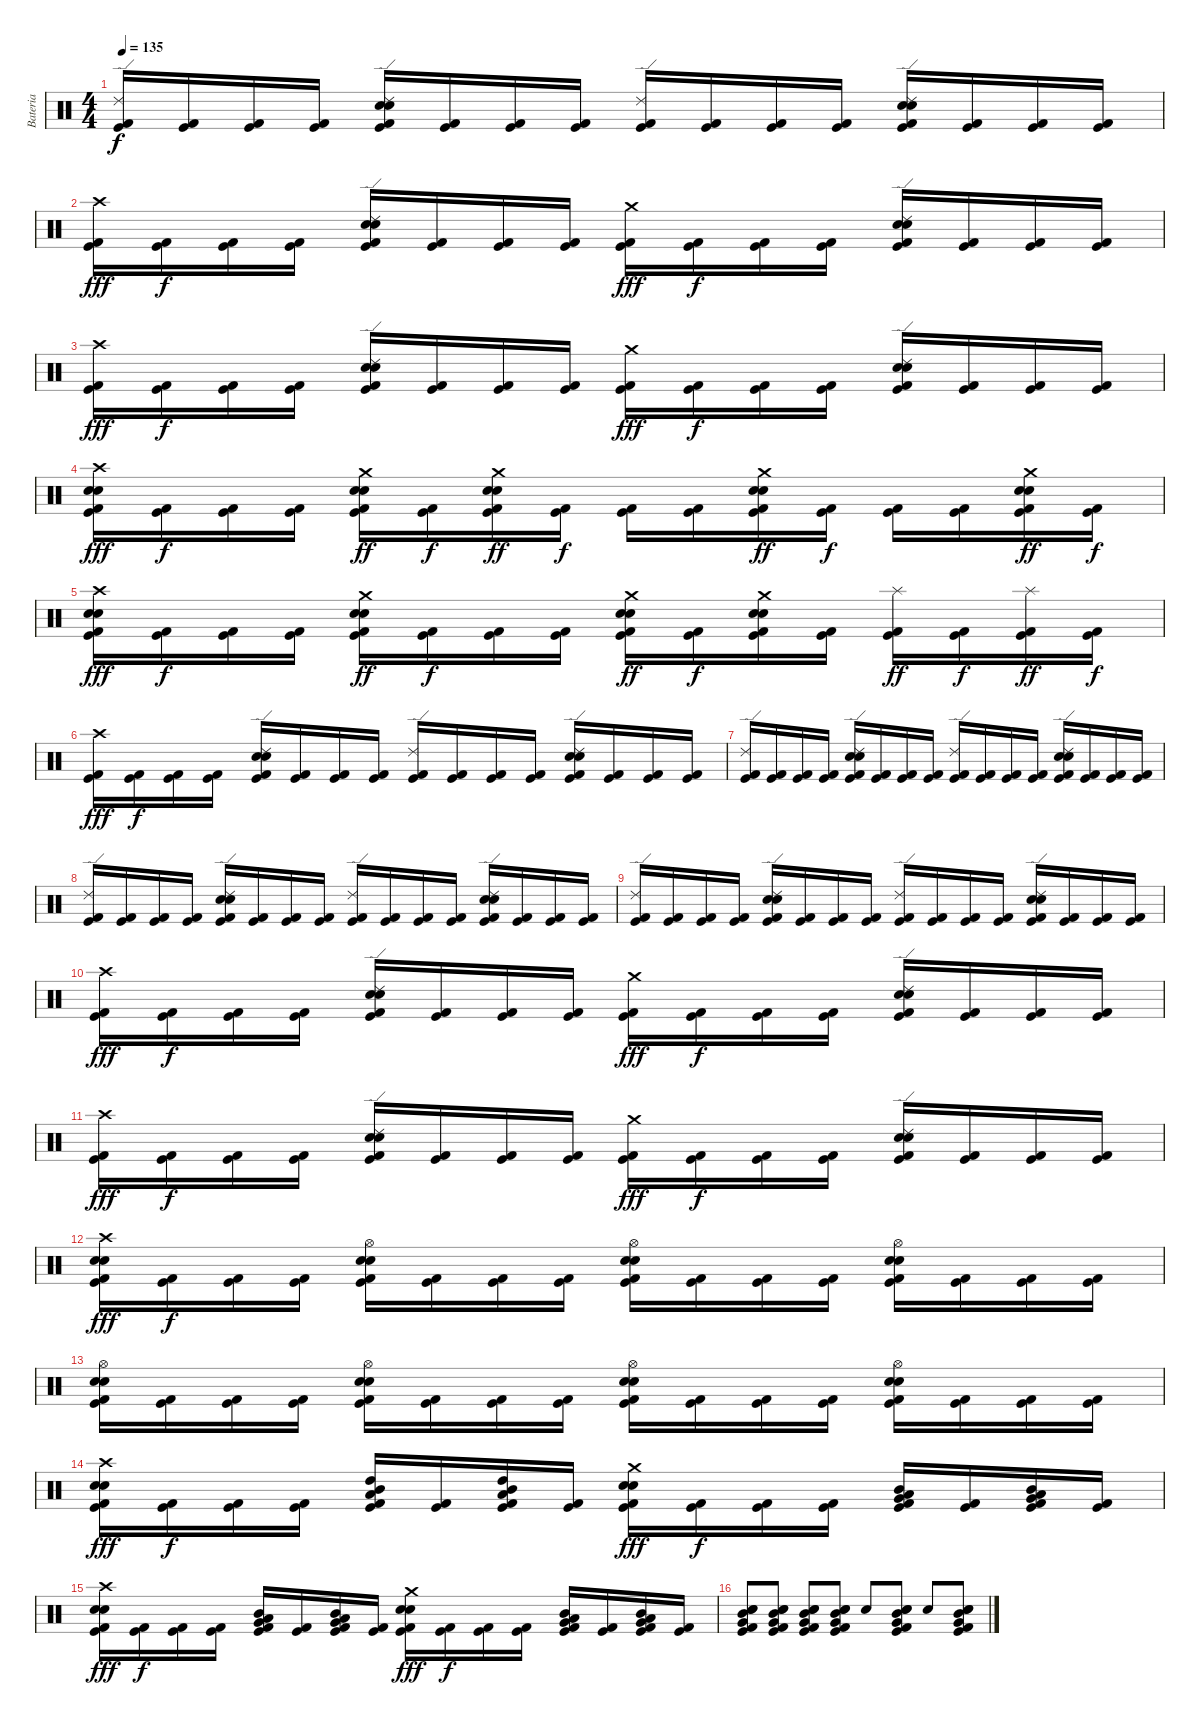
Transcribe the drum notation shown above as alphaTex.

\track ("Bateria" "Bateria") {instrument percussion}
\staff {score}
\articulation defaults
\ts (4 4)
\tempo 135
\clef neutral
\ks c
("Ride (edge) 2" "Kick (hit) 2" "Kick (hit)").16{dy f} ("Kick (hit) 2" "Kick (hit)").16 ("Kick (hit) 2" "Kick (hit)").16 ("Kick (hit) 2" "Kick (hit)").16 ("Ride (edge) 2" "Electric Snare (hit)" "Snare (hit) 2" "Kick (hit) 2" "Kick (hit)").16 ("Kick (hit) 2" "Kick (hit)").16 ("Kick (hit) 2" "Kick (hit)").16 ("Kick (hit) 2" "Kick (hit)").16 ("Ride (edge) 2" "Kick (hit) 2" "Kick (hit)").16 ("Kick (hit) 2" "Kick (hit)").16 ("Kick (hit) 2" "Kick (hit)").16 ("Kick (hit) 2" "Kick (hit)").16 ("Ride (edge) 2" "Electric Snare (hit)" "Snare (hit) 2" "Kick (hit) 2" "Kick (hit)").16 ("Kick (hit) 2" "Kick (hit)").16 ("Kick (hit) 2" "Kick (hit)").16 ("Kick (hit) 2" "Kick (hit)").16 |
("Crash high (hit)" "Kick (hit) 2" "Kick (hit)").16{dy fff} ("Kick (hit) 2" "Kick (hit)").16{dy f} ("Kick (hit) 2" "Kick (hit)").16 ("Kick (hit) 2" "Kick (hit)").16 ("Ride (edge) 2" "Electric Snare (hit)" "Snare (hit) 2" "Kick (hit) 2" "Kick (hit)").16 ("Kick (hit) 2" "Kick (hit)").16 ("Kick (hit) 2" "Kick (hit)").16 ("Kick (hit) 2" "Kick (hit)").16 ("Crash medium (hit)" "Kick (hit) 2" "Kick (hit)").16{dy fff} ("Kick (hit) 2" "Kick (hit)").16{dy f} ("Kick (hit) 2" "Kick (hit)").16 ("Kick (hit) 2" "Kick (hit)").16 ("Ride (edge) 2" "Electric Snare (hit)" "Snare (hit) 2" "Kick (hit) 2" "Kick (hit)").16 ("Kick (hit) 2" "Kick (hit)").16 ("Kick (hit) 2" "Kick (hit)").16 ("Kick (hit) 2" "Kick (hit)").16 |
("Crash high (hit)" "Kick (hit) 2" "Kick (hit)").16{dy fff} ("Kick (hit) 2" "Kick (hit)").16{dy f} ("Kick (hit) 2" "Kick (hit)").16 ("Kick (hit) 2" "Kick (hit)").16 ("Ride (edge) 2" "Electric Snare (hit)" "Snare (hit) 2" "Kick (hit) 2" "Kick (hit)").16 ("Kick (hit) 2" "Kick (hit)").16 ("Kick (hit) 2" "Kick (hit)").16 ("Kick (hit) 2" "Kick (hit)").16 ("Crash medium (hit)" "Kick (hit) 2" "Kick (hit)").16{dy fff} ("Kick (hit) 2" "Kick (hit)").16{dy f} ("Kick (hit) 2" "Kick (hit)").16 ("Kick (hit) 2" "Kick (hit)").16 ("Ride (edge) 2" "Electric Snare (hit)" "Snare (hit) 2" "Kick (hit) 2" "Kick (hit)").16 ("Kick (hit) 2" "Kick (hit)").16 ("Kick (hit) 2" "Kick (hit)").16 ("Kick (hit) 2" "Kick (hit)").16 |
("Crash high (hit)" "Electric Snare (hit)" "Snare (hit) 2" "Kick (hit) 2" "Kick (hit)").16{dy fff} ("Kick (hit) 2" "Kick (hit)").16{dy f} ("Kick (hit) 2" "Kick (hit)").16 ("Kick (hit) 2" "Kick (hit)").16 ("Crash medium (hit)" "Electric Snare (hit)" "Snare (hit) 2" "Kick (hit) 2" "Kick (hit)").16{dy ff} ("Kick (hit) 2" "Kick (hit)").16{dy f} ("Crash medium (hit)" "Electric Snare (hit)" "Snare (hit) 2" "Kick (hit) 2" "Kick (hit)").16{dy ff} ("Kick (hit) 2" "Kick (hit)").16{dy f} ("Kick (hit) 2" "Kick (hit)").16 ("Kick (hit) 2" "Kick (hit)").16 ("Crash medium (hit)" "Electric Snare (hit)" "Snare (hit) 2" "Kick (hit) 2" "Kick (hit)").16{dy ff} ("Kick (hit) 2" "Kick (hit)").16{dy f} ("Kick (hit) 2" "Kick (hit)").16 ("Kick (hit) 2" "Kick (hit)").16 ("Crash medium (hit)" "Electric Snare (hit)" "Snare (hit) 2" "Kick (hit) 2" "Kick (hit)").16{dy ff} ("Kick (hit) 2" "Kick (hit)").16{dy f} |
("Crash high (hit)" "Electric Snare (hit)" "Snare (hit) 2" "Kick (hit) 2" "Kick (hit)").16{dy fff} ("Kick (hit) 2" "Kick (hit)").16{dy f} ("Kick (hit) 2" "Kick (hit)").16 ("Kick (hit) 2" "Kick (hit)").16 ("Crash medium (hit)" "Electric Snare (hit)" "Snare (hit) 2" "Kick (hit) 2" "Kick (hit)").16{dy ff} ("Kick (hit) 2" "Kick (hit)").16{dy f} ("Kick (hit) 2" "Kick (hit)").16 ("Kick (hit) 2" "Kick (hit)").16 ("Crash medium (hit)" "Electric Snare (hit)" "Snare (hit) 2" "Kick (hit) 2" "Kick (hit)").16{dy ff} ("Kick (hit) 2" "Kick (hit)").16{dy f} ("Crash medium (hit)" "Electric Snare (hit)" "Snare (hit) 2" "Kick (hit) 2" "Kick (hit)").16 ("Kick (hit) 2" "Kick (hit)").16 ("Splash (hit)" "Kick (hit) 2" "Kick (hit)").16{dy ff} ("Kick (hit) 2" "Kick (hit)").16{dy f} ("Splash (hit)" "Kick (hit) 2" "Kick (hit)").16{dy ff} ("Kick (hit) 2" "Kick (hit)").16{dy f} |
("Crash high (hit)" "Kick (hit) 2" "Kick (hit)").16{dy fff} ("Kick (hit) 2" "Kick (hit)").16{dy f} ("Kick (hit) 2" "Kick (hit)").16 ("Kick (hit) 2" "Kick (hit)").16 ("Ride (edge) 2" "Electric Snare (hit)" "Snare (hit) 2" "Kick (hit) 2" "Kick (hit)").16 ("Kick (hit) 2" "Kick (hit)").16 ("Kick (hit) 2" "Kick (hit)").16 ("Kick (hit) 2" "Kick (hit)").16 ("Ride (edge) 2" "Kick (hit) 2" "Kick (hit)").16 ("Kick (hit) 2" "Kick (hit)").16 ("Kick (hit) 2" "Kick (hit)").16 ("Kick (hit) 2" "Kick (hit)").16 ("Ride (edge) 2" "Electric Snare (hit)" "Snare (hit) 2" "Kick (hit) 2" "Kick (hit)").16 ("Kick (hit) 2" "Kick (hit)").16 ("Kick (hit) 2" "Kick (hit)").16 ("Kick (hit) 2" "Kick (hit)").16 |
("Ride (edge) 2" "Kick (hit) 2" "Kick (hit)").16 ("Kick (hit) 2" "Kick (hit)").16 ("Kick (hit) 2" "Kick (hit)").16 ("Kick (hit) 2" "Kick (hit)").16 ("Ride (edge) 2" "Electric Snare (hit)" "Snare (hit) 2" "Kick (hit) 2" "Kick (hit)").16 ("Kick (hit) 2" "Kick (hit)").16 ("Kick (hit) 2" "Kick (hit)").16 ("Kick (hit) 2" "Kick (hit)").16 ("Ride (edge) 2" "Kick (hit) 2" "Kick (hit)").16 ("Kick (hit) 2" "Kick (hit)").16 ("Kick (hit) 2" "Kick (hit)").16 ("Kick (hit) 2" "Kick (hit)").16 ("Ride (edge) 2" "Electric Snare (hit)" "Snare (hit) 2" "Kick (hit) 2" "Kick (hit)").16 ("Kick (hit) 2" "Kick (hit)").16 ("Kick (hit) 2" "Kick (hit)").16 ("Kick (hit) 2" "Kick (hit)").16 |
("Ride (edge) 2" "Kick (hit) 2" "Kick (hit)").16 ("Kick (hit) 2" "Kick (hit)").16 ("Kick (hit) 2" "Kick (hit)").16 ("Kick (hit) 2" "Kick (hit)").16 ("Ride (edge) 2" "Electric Snare (hit)" "Snare (hit) 2" "Kick (hit) 2" "Kick (hit)").16 ("Kick (hit) 2" "Kick (hit)").16 ("Kick (hit) 2" "Kick (hit)").16 ("Kick (hit) 2" "Kick (hit)").16 ("Ride (edge) 2" "Kick (hit) 2" "Kick (hit)").16 ("Kick (hit) 2" "Kick (hit)").16 ("Kick (hit) 2" "Kick (hit)").16 ("Kick (hit) 2" "Kick (hit)").16 ("Ride (edge) 2" "Electric Snare (hit)" "Snare (hit) 2" "Kick (hit) 2" "Kick (hit)").16 ("Kick (hit) 2" "Kick (hit)").16 ("Kick (hit) 2" "Kick (hit)").16 ("Kick (hit) 2" "Kick (hit)").16 |
("Ride (edge) 2" "Kick (hit) 2" "Kick (hit)").16 ("Kick (hit) 2" "Kick (hit)").16 ("Kick (hit) 2" "Kick (hit)").16 ("Kick (hit) 2" "Kick (hit)").16 ("Ride (edge) 2" "Electric Snare (hit)" "Snare (hit) 2" "Kick (hit) 2" "Kick (hit)").16 ("Kick (hit) 2" "Kick (hit)").16 ("Kick (hit) 2" "Kick (hit)").16 ("Kick (hit) 2" "Kick (hit)").16 ("Ride (edge) 2" "Kick (hit) 2" "Kick (hit)").16 ("Kick (hit) 2" "Kick (hit)").16 ("Kick (hit) 2" "Kick (hit)").16 ("Kick (hit) 2" "Kick (hit)").16 ("Ride (edge) 2" "Electric Snare (hit)" "Snare (hit) 2" "Kick (hit) 2" "Kick (hit)").16 ("Kick (hit) 2" "Kick (hit)").16 ("Kick (hit) 2" "Kick (hit)").16 ("Kick (hit) 2" "Kick (hit)").16 |
("Crash high (hit)" "Kick (hit) 2" "Kick (hit)").16{dy fff} ("Kick (hit) 2" "Kick (hit)").16{dy f} ("Kick (hit) 2" "Kick (hit)").16 ("Kick (hit) 2" "Kick (hit)").16 ("Ride (edge) 2" "Electric Snare (hit)" "Snare (hit) 2" "Kick (hit) 2" "Kick (hit)").16 ("Kick (hit) 2" "Kick (hit)").16 ("Kick (hit) 2" "Kick (hit)").16 ("Kick (hit) 2" "Kick (hit)").16 ("Crash medium (hit)" "Kick (hit) 2" "Kick (hit)").16{dy fff} ("Kick (hit) 2" "Kick (hit)").16{dy f} ("Kick (hit) 2" "Kick (hit)").16 ("Kick (hit) 2" "Kick (hit)").16 ("Ride (edge) 2" "Electric Snare (hit)" "Snare (hit) 2" "Kick (hit) 2" "Kick (hit)").16 ("Kick (hit) 2" "Kick (hit)").16 ("Kick (hit) 2" "Kick (hit)").16 ("Kick (hit) 2" "Kick (hit)").16 |
("Crash high (hit)" "Kick (hit) 2" "Kick (hit)").16{dy fff} ("Kick (hit) 2" "Kick (hit)").16{dy f} ("Kick (hit) 2" "Kick (hit)").16 ("Kick (hit) 2" "Kick (hit)").16 ("Ride (edge) 2" "Electric Snare (hit)" "Snare (hit) 2" "Kick (hit) 2" "Kick (hit)").16 ("Kick (hit) 2" "Kick (hit)").16 ("Kick (hit) 2" "Kick (hit)").16 ("Kick (hit) 2" "Kick (hit)").16 ("Crash medium (hit)" "Kick (hit) 2" "Kick (hit)").16{dy fff} ("Kick (hit) 2" "Kick (hit)").16{dy f} ("Kick (hit) 2" "Kick (hit)").16 ("Kick (hit) 2" "Kick (hit)").16 ("Ride (edge) 2" "Electric Snare (hit)" "Snare (hit) 2" "Kick (hit) 2" "Kick (hit)").16 ("Kick (hit) 2" "Kick (hit)").16 ("Kick (hit) 2" "Kick (hit)").16 ("Kick (hit) 2" "Kick (hit)").16 |
("Crash high (hit)" "Electric Snare (hit)" "Snare (hit) 2" "Kick (hit) 2" "Kick (hit)").16{dy fff} ("Kick (hit) 2" "Kick (hit)").16{dy f} ("Kick (hit) 2" "Kick (hit)").16 ("Kick (hit) 2" "Kick (hit)").16 ("Hi-Hat (open)" "Electric Snare (hit)" "Snare (hit) 2" "Kick (hit) 2" "Kick (hit)").16 ("Kick (hit) 2" "Kick (hit)").16 ("Kick (hit) 2" "Kick (hit)").16 ("Kick (hit) 2" "Kick (hit)").16 ("Hi-Hat (open)" "Electric Snare (hit)" "Snare (hit) 2" "Kick (hit) 2" "Kick (hit)").16 ("Kick (hit) 2" "Kick (hit)").16 ("Kick (hit) 2" "Kick (hit)").16 ("Kick (hit) 2" "Kick (hit)").16 ("Hi-Hat (open)" "Electric Snare (hit)" "Snare (hit) 2" "Kick (hit) 2" "Kick (hit)").16 ("Kick (hit) 2" "Kick (hit)").16 ("Kick (hit) 2" "Kick (hit)").16 ("Kick (hit) 2" "Kick (hit)").16 |
("Hi-Hat (open)" "Electric Snare (hit)" "Snare (hit) 2" "Kick (hit) 2" "Kick (hit)").16 ("Kick (hit) 2" "Kick (hit)").16 ("Kick (hit) 2" "Kick (hit)").16 ("Kick (hit) 2" "Kick (hit)").16 ("Hi-Hat (open)" "Electric Snare (hit)" "Snare (hit) 2" "Kick (hit) 2" "Kick (hit)").16 ("Kick (hit) 2" "Kick (hit)").16 ("Kick (hit) 2" "Kick (hit)").16 ("Kick (hit) 2" "Kick (hit)").16 ("Hi-Hat (open)" "Electric Snare (hit)" "Snare (hit) 2" "Kick (hit) 2" "Kick (hit)").16 ("Kick (hit) 2" "Kick (hit)").16 ("Kick (hit) 2" "Kick (hit)").16 ("Kick (hit) 2" "Kick (hit)").16 ("Hi-Hat (open)" "Electric Snare (hit)" "Snare (hit) 2" "Kick (hit) 2" "Kick (hit)").16 ("Kick (hit) 2" "Kick (hit)").16 ("Kick (hit) 2" "Kick (hit)").16 ("Kick (hit) 2" "Kick (hit)").16 |
("Crash high (hit)" "Electric Snare (hit)" "Snare (hit) 2" "Kick (hit) 2" "Kick (hit)").16{dy fff} ("Kick (hit) 2" "Kick (hit)").16{dy f} ("Kick (hit) 2" "Kick (hit)").16 ("Kick (hit) 2" "Kick (hit)").16 ("High Tom (hit)" "Mid Tom (hit)" "Low Tom (hit)" "Kick (hit) 2" "Kick (hit)").16 ("Kick (hit) 2" "Kick (hit)").16 ("High Tom (hit)" "Mid Tom (hit)" "Low Tom (hit)" "Kick (hit) 2" "Kick (hit)").16 ("Kick (hit) 2" "Kick (hit)").16 ("Crash medium (hit)" "Electric Snare (hit)" "Snare (hit) 2" "Kick (hit) 2" "Kick (hit)").16{dy fff} ("Kick (hit) 2" "Kick (hit)").16{dy f} ("Kick (hit) 2" "Kick (hit)").16 ("Kick (hit) 2" "Kick (hit)").16 ("Mid Tom (hit)" "Low Tom (hit)" "Very Low Tom (hit)" "Kick (hit) 2" "Kick (hit)").16 ("Kick (hit) 2" "Kick (hit)").16 ("Mid Tom (hit)" "Low Tom (hit)" "Very Low Tom (hit)" "Kick (hit) 2" "Kick (hit)").16 ("Kick (hit) 2" "Kick (hit)").16 |
("Crash high (hit)" "Electric Snare (hit)" "Snare (hit) 2" "Kick (hit) 2" "Kick (hit)").16{dy fff} ("Kick (hit) 2" "Kick (hit)").16{dy f} ("Kick (hit) 2" "Kick (hit)").16 ("Kick (hit) 2" "Kick (hit)").16 ("Mid Tom (hit)" "Low Tom (hit)" "Very Low Tom (hit)" "Kick (hit) 2" "Kick (hit)").16 ("Kick (hit) 2" "Kick (hit)").16 ("Mid Tom (hit)" "Low Tom (hit)" "Very Low Tom (hit)" "Kick (hit) 2" "Kick (hit)").16 ("Kick (hit) 2" "Kick (hit)").16 ("Crash medium (hit)" "Electric Snare (hit)" "Snare (hit) 2" "Kick (hit) 2" "Kick (hit)").16{dy fff} ("Kick (hit) 2" "Kick (hit)").16{dy f} ("Kick (hit) 2" "Kick (hit)").16 ("Kick (hit) 2" "Kick (hit)").16 ("Mid Tom (hit)" "Low Tom (hit)" "Very Low Tom (hit)" "Kick (hit) 2" "Kick (hit)").16 ("Kick (hit) 2" "Kick (hit)").16 ("Mid Tom (hit)" "Low Tom (hit)" "Very Low Tom (hit)" "Kick (hit) 2" "Kick (hit)").16 ("Kick (hit) 2" "Kick (hit)").16 |
("Mid Tom (hit)" "Very Low Tom (hit)" "Electric Snare (hit)" "Snare (hit) 2" "Kick (hit) 2" "Kick (hit)").8 ("Mid Tom (hit)" "Very Low Tom (hit)" "Electric Snare (hit)" "Snare (hit) 2" "Kick (hit) 2" "Kick (hit)").8 ("Mid Tom (hit)" "Very Low Tom (hit)" "Electric Snare (hit)" "Snare (hit) 2" "Kick (hit) 2" "Kick (hit)").8 ("Mid Tom (hit)" "Very Low Tom (hit)" "Electric Snare (hit)" "Snare (hit) 2" "Kick (hit) 2" "Kick (hit)").8 "Snare (hit)"{x}.8 ("Mid Tom (hit)" "Very Low Tom (hit)" "Electric Snare (hit)" "Snare (hit) 2" "Kick (hit) 2" "Kick (hit)").8 "Snare (hit)"{x}.8 ("Mid Tom (hit)" "Very Low Tom (hit)" "Electric Snare (hit)" "Snare (hit) 2" "Kick (hit) 2" "Kick (hit)").8
